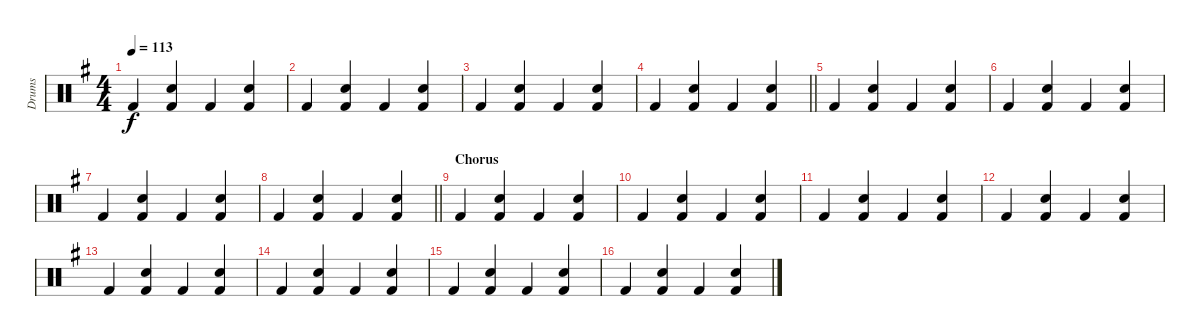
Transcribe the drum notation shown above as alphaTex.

\track ("Drums" "Drums") {instrument percussion}
\staff {score}
\articulation defaults
\ts (4 4)
\tempo 113
\clef neutral
\ks g "Kick (hit) 2".4{dy f}
("Snare (hit) 2" "Kick (hit) 2").4 "Kick (hit) 2".4 ("Snare (hit) 2" "Kick (hit) 2").4 |
"Kick (hit) 2".4 ("Snare (hit) 2" "Kick (hit) 2").4 "Kick (hit) 2".4 ("Snare (hit) 2" "Kick (hit) 2").4 |
"Kick (hit) 2".4 ("Snare (hit) 2" "Kick (hit) 2").4 "Kick (hit) 2".4 ("Snare (hit) 2" "Kick (hit) 2").4 |
\barLineRight lightlight "Kick (hit) 2".4
("Snare (hit) 2" "Kick (hit) 2").4 "Kick (hit) 2".4 ("Snare (hit) 2" "Kick (hit) 2").4 |
"Kick (hit) 2".4 ("Snare (hit) 2" "Kick (hit) 2").4 "Kick (hit) 2".4 ("Snare (hit) 2" "Kick (hit) 2").4 |
"Kick (hit) 2".4 ("Snare (hit) 2" "Kick (hit) 2").4 "Kick (hit) 2".4 ("Snare (hit) 2" "Kick (hit) 2").4 |
"Kick (hit) 2".4 ("Snare (hit) 2" "Kick (hit) 2").4 "Kick (hit) 2".4 ("Snare (hit) 2" "Kick (hit) 2").4 |
\barLineRight lightlight "Kick (hit) 2".4
("Snare (hit) 2" "Kick (hit) 2").4 "Kick (hit) 2".4 ("Snare (hit) 2" "Kick (hit) 2").4 |
\section ("" "Chorus")
"Kick (hit) 2".4 ("Snare (hit) 2" "Kick (hit) 2").4 "Kick (hit) 2".4 ("Snare (hit) 2" "Kick (hit) 2").4 |
"Kick (hit) 2".4 ("Snare (hit) 2" "Kick (hit) 2").4 "Kick (hit) 2".4 ("Snare (hit) 2" "Kick (hit) 2").4 |
"Kick (hit) 2".4 ("Snare (hit) 2" "Kick (hit) 2").4 "Kick (hit) 2".4 ("Snare (hit) 2" "Kick (hit) 2").4 |
"Kick (hit) 2".4 ("Snare (hit) 2" "Kick (hit) 2").4 "Kick (hit) 2".4 ("Snare (hit) 2" "Kick (hit) 2").4 |
"Kick (hit) 2".4 ("Snare (hit) 2" "Kick (hit) 2").4 "Kick (hit) 2".4 ("Snare (hit) 2" "Kick (hit) 2").4 |
"Kick (hit) 2".4 ("Snare (hit) 2" "Kick (hit) 2").4 "Kick (hit) 2".4 ("Snare (hit) 2" "Kick (hit) 2").4 |
"Kick (hit) 2".4 ("Snare (hit) 2" "Kick (hit) 2").4 "Kick (hit) 2".4 ("Snare (hit) 2" "Kick (hit) 2").4 |
"Kick (hit) 2".4 ("Snare (hit) 2" "Kick (hit) 2").4 "Kick (hit) 2".4 ("Snare (hit) 2" "Kick (hit) 2").4
